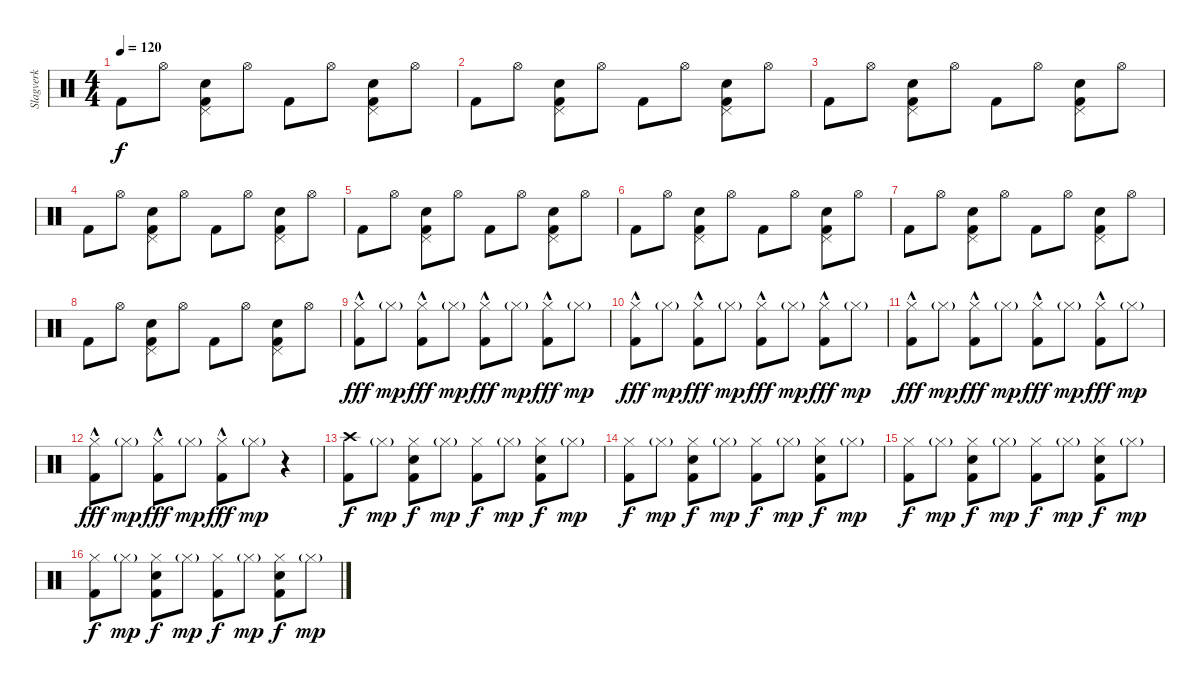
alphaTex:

\track ("Slagverk" "Slagverk") {instrument percussion}
\staff {score}
\articulation defaults
\ts (4 4)
\tempo 120
\clef neutral
\ks c "Kick (hit) 2".8{dy f} "Hi-Hat (open)".8
("Kick (hit) 2" "Pedal Hi-Hat (hit)" "Snare (hit) 2").8 "Hi-Hat (open)".8 "Kick (hit) 2".8 "Hi-Hat (open)".8 ("Kick (hit) 2" "Pedal Hi-Hat (hit)" "Snare (hit) 2").8 "Hi-Hat (open)".8 |
"Kick (hit) 2".8 "Hi-Hat (open)".8 ("Kick (hit) 2" "Pedal Hi-Hat (hit)" "Snare (hit) 2").8 "Hi-Hat (open)".8 "Kick (hit) 2".8 "Hi-Hat (open)".8 ("Kick (hit) 2" "Pedal Hi-Hat (hit)" "Snare (hit) 2").8 "Hi-Hat (open)".8 |
"Kick (hit) 2".8 "Hi-Hat (open)".8 ("Kick (hit) 2" "Pedal Hi-Hat (hit)" "Snare (hit) 2").8 "Hi-Hat (open)".8 "Kick (hit) 2".8 "Hi-Hat (open)".8 ("Kick (hit) 2" "Pedal Hi-Hat (hit)" "Snare (hit) 2").8 "Hi-Hat (open)".8 |
"Kick (hit) 2".8 "Hi-Hat (open)".8 ("Kick (hit) 2" "Pedal Hi-Hat (hit)" "Snare (hit) 2").8 "Hi-Hat (open)".8 "Kick (hit) 2".8 "Hi-Hat (open)".8 ("Kick (hit) 2" "Pedal Hi-Hat (hit)" "Snare (hit) 2").8 "Hi-Hat (open)".8 |
"Kick (hit) 2".8 "Hi-Hat (open)".8 ("Kick (hit) 2" "Pedal Hi-Hat (hit)" "Snare (hit) 2").8 "Hi-Hat (open)".8 "Kick (hit) 2".8 "Hi-Hat (open)".8 ("Kick (hit) 2" "Pedal Hi-Hat (hit)" "Snare (hit) 2").8 "Hi-Hat (open)".8 |
"Kick (hit) 2".8 "Hi-Hat (open)".8 ("Kick (hit) 2" "Pedal Hi-Hat (hit)" "Snare (hit) 2").8 "Hi-Hat (open)".8 "Kick (hit) 2".8 "Hi-Hat (open)".8 ("Kick (hit) 2" "Pedal Hi-Hat (hit)" "Snare (hit) 2").8 "Hi-Hat (open)".8 |
"Kick (hit) 2".8 "Hi-Hat (open)".8 ("Kick (hit) 2" "Pedal Hi-Hat (hit)" "Snare (hit) 2").8 "Hi-Hat (open)".8 "Kick (hit) 2".8 "Hi-Hat (open)".8 ("Kick (hit) 2" "Pedal Hi-Hat (hit)" "Snare (hit) 2").8 "Hi-Hat (open)".8 |
"Kick (hit) 2".8 "Hi-Hat (open)".8 ("Kick (hit) 2" "Pedal Hi-Hat (hit)" "Snare (hit) 2").8 "Hi-Hat (open)".8 "Kick (hit) 2".8 "Hi-Hat (open)".8 ("Kick (hit) 2" "Pedal Hi-Hat (hit)" "Snare (hit) 2").8 "Hi-Hat (open)".8 |
("Kick (hit) 2"{hac} "Hi-Hat (closed)").8{dy fff} "Hi-Hat (closed)"{g}.8{dy mp} ("Kick (hit) 2"{hac} "Hi-Hat (closed)").8{dy fff} "Hi-Hat (closed)"{g}.8{dy mp} ("Kick (hit) 2"{hac} "Hi-Hat (closed)").8{dy fff} "Hi-Hat (closed)"{g}.8{dy mp} ("Kick (hit) 2"{hac} "Hi-Hat (closed)").8{dy fff} "Hi-Hat (closed)"{g}.8{dy mp} |
("Kick (hit) 2"{hac} "Hi-Hat (closed)").8{dy fff} "Hi-Hat (closed)"{g}.8{dy mp} ("Kick (hit) 2"{hac} "Hi-Hat (closed)").8{dy fff} "Hi-Hat (closed)"{g}.8{dy mp} ("Kick (hit) 2"{hac} "Hi-Hat (closed)").8{dy fff} "Hi-Hat (closed)"{g}.8{dy mp} ("Kick (hit) 2"{hac} "Hi-Hat (closed)").8{dy fff} "Hi-Hat (closed)"{g}.8{dy mp} |
("Kick (hit) 2"{hac} "Hi-Hat (closed)").8{dy fff} "Hi-Hat (closed)"{g}.8{dy mp} ("Kick (hit) 2"{hac} "Hi-Hat (closed)").8{dy fff} "Hi-Hat (closed)"{g}.8{dy mp} ("Kick (hit) 2"{hac} "Hi-Hat (closed)").8{dy fff} "Hi-Hat (closed)"{g}.8{dy mp} ("Kick (hit) 2"{hac} "Hi-Hat (closed)").8{dy fff} "Hi-Hat (closed)"{g}.8{dy mp} |
("Kick (hit) 2"{hac} "Hi-Hat (closed)").8{dy fff} "Hi-Hat (closed)"{g}.8{dy mp} ("Kick (hit) 2"{hac} "Hi-Hat (closed)").8{dy fff} "Hi-Hat (closed)"{g}.8{dy mp} ("Kick (hit) 2"{hac} "Hi-Hat (closed)").8{dy fff} "Hi-Hat (closed)"{g}.8{dy mp} r.4 |
("Kick (hit) 2" "Crash high (hit)").8{dy f} "Hi-Hat (closed)"{g}.8{dy mp} ("Kick (hit) 2" "Hi-Hat (closed)" "Snare (hit) 2").8{dy f} "Hi-Hat (closed)"{g}.8{dy mp} ("Kick (hit) 2" "Hi-Hat (closed)").8{dy f} "Hi-Hat (closed)"{g}.8{dy mp} ("Kick (hit) 2" "Hi-Hat (closed)" "Snare (hit) 2").8{dy f} "Hi-Hat (closed)"{g}.8{dy mp} |
("Kick (hit) 2" "Hi-Hat (closed)").8{dy f} "Hi-Hat (closed)"{g}.8{dy mp} ("Kick (hit) 2" "Hi-Hat (closed)" "Snare (hit) 2").8{dy f} "Hi-Hat (closed)"{g}.8{dy mp} ("Kick (hit) 2" "Hi-Hat (closed)").8{dy f} "Hi-Hat (closed)"{g}.8{dy mp} ("Kick (hit) 2" "Hi-Hat (closed)" "Snare (hit) 2").8{dy f} "Hi-Hat (closed)"{g}.8{dy mp} |
("Kick (hit) 2" "Hi-Hat (closed)").8{dy f} "Hi-Hat (closed)"{g}.8{dy mp} ("Kick (hit) 2" "Hi-Hat (closed)" "Snare (hit) 2").8{dy f} "Hi-Hat (closed)"{g}.8{dy mp} ("Kick (hit) 2" "Hi-Hat (closed)").8{dy f} "Hi-Hat (closed)"{g}.8{dy mp} ("Kick (hit) 2" "Hi-Hat (closed)" "Snare (hit) 2").8{dy f} "Hi-Hat (closed)"{g}.8{dy mp} |
("Kick (hit) 2" "Hi-Hat (closed)").8{dy f} "Hi-Hat (closed)"{g}.8{dy mp} ("Kick (hit) 2" "Hi-Hat (closed)" "Snare (hit) 2").8{dy f} "Hi-Hat (closed)"{g}.8{dy mp} ("Kick (hit) 2" "Hi-Hat (closed)").8{dy f} "Hi-Hat (closed)"{g}.8{dy mp} ("Kick (hit) 2" "Hi-Hat (closed)" "Snare (hit) 2").8{dy f} "Hi-Hat (closed)"{g}.8{dy mp}
